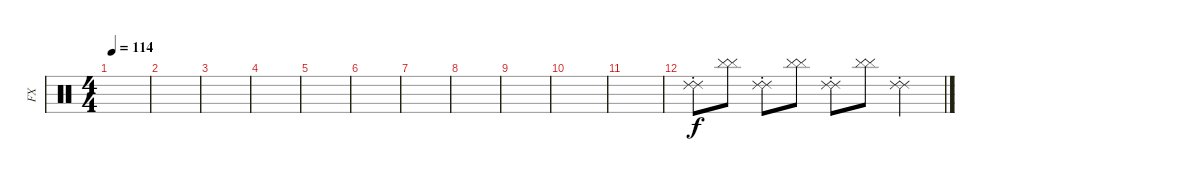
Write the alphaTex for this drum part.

\track ("FX" "FX") {instrument percussion}
\staff {score}
\articulation defaults
\ts (4 4)
\tempo 114
\clef neutral
\ks c
|
|
|
|
|
|
|
|
|
|
|
("Ride (choke) 2" "Ride (choke) 2").8{volume 9} ("Cymbal (hit)" "Cymbal (hit)").8 ("Ride (choke) 2" "Ride (choke) 2").8 ("Cymbal (hit)" "Cymbal (hit)").8 ("Ride (choke) 2" "Ride (choke) 2").8 ("Cymbal (hit)" "Cymbal (hit)").8 ("Ride (choke) 2" "Ride (choke) 2").4
